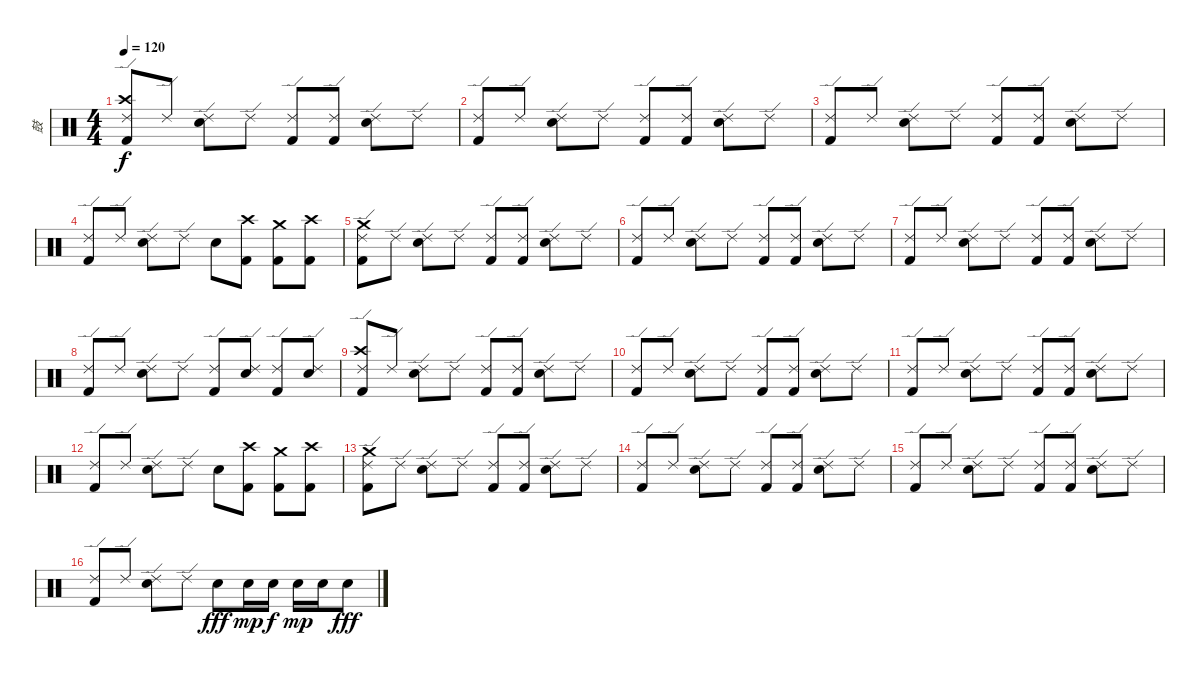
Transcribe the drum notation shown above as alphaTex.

\track ("鼓" "鼓") {instrument percussion}
\staff {score}
\articulation defaults
\ts (4 4)
\tempo 120
\clef neutral
\ks c
("Ride (edge) 2" "Crash high (hit)" "Kick (hit) 2").8{dy f volume 13} "Ride (edge) 2".8 ("Ride (edge) 2" "Electric Snare (hit)").8 "Ride (edge) 2".8 ("Ride (edge) 2" "Kick (hit) 2").8 ("Ride (edge) 2" "Kick (hit) 2").8 ("Ride (edge) 2" "Electric Snare (hit)").8 "Ride (edge) 2".8 |
("Ride (edge) 2" "Kick (hit) 2").8 "Ride (edge) 2".8 ("Ride (edge) 2" "Electric Snare (hit)").8 "Ride (edge) 2".8 ("Ride (edge) 2" "Kick (hit) 2").8 ("Ride (edge) 2" "Kick (hit) 2").8 ("Ride (edge) 2" "Electric Snare (hit)").8 "Ride (edge) 2".8 |
("Ride (edge) 2" "Kick (hit) 2").8 "Ride (edge) 2".8 ("Ride (edge) 2" "Electric Snare (hit)").8 "Ride (edge) 2".8 ("Ride (edge) 2" "Kick (hit) 2").8 ("Ride (edge) 2" "Kick (hit) 2").8 ("Ride (edge) 2" "Electric Snare (hit)").8 "Ride (edge) 2".8 |
("Ride (edge) 2" "Kick (hit) 2").8 "Ride (edge) 2".8 ("Ride (edge) 2" "Electric Snare (hit)").8 "Ride (edge) 2".8 "Electric Snare (hit)".8 ("Crash high (hit)" "Kick (hit) 2").8 ("Crash medium (hit)" "Kick (hit) 2").8 ("Crash high (hit)" "Kick (hit) 2").8 |
("Ride (edge) 2" "Crash medium (hit)" "Kick (hit) 2").8 "Ride (edge) 2".8 ("Ride (edge) 2" "Electric Snare (hit)").8 "Ride (edge) 2".8 ("Ride (edge) 2" "Kick (hit) 2").8 ("Ride (edge) 2" "Kick (hit) 2").8 ("Ride (edge) 2" "Electric Snare (hit)").8 "Ride (edge) 2".8 |
("Ride (edge) 2" "Kick (hit) 2").8 "Ride (edge) 2".8 ("Ride (edge) 2" "Electric Snare (hit)").8 "Ride (edge) 2".8 ("Ride (edge) 2" "Kick (hit) 2").8 ("Ride (edge) 2" "Kick (hit) 2").8 ("Ride (edge) 2" "Electric Snare (hit)").8 "Ride (edge) 2".8 |
("Ride (edge) 2" "Kick (hit) 2").8 "Ride (edge) 2".8 ("Ride (edge) 2" "Electric Snare (hit)").8 "Ride (edge) 2".8 ("Ride (edge) 2" "Kick (hit) 2").8 ("Ride (edge) 2" "Kick (hit) 2").8 ("Ride (edge) 2" "Electric Snare (hit)").8 "Ride (edge) 2".8 |
("Ride (edge) 2" "Kick (hit) 2").8 "Ride (edge) 2".8 ("Ride (edge) 2" "Electric Snare (hit)").8 "Ride (edge) 2".8 ("Ride (edge) 2" "Kick (hit) 2").8 ("Ride (edge) 2" "Electric Snare (hit)").8 ("Ride (edge) 2" "Kick (hit) 2").8 ("Ride (edge) 2" "Electric Snare (hit)").8 |
("Ride (edge) 2" "Crash high (hit)" "Kick (hit) 2").8{volume 13} "Ride (edge) 2".8 ("Ride (edge) 2" "Electric Snare (hit)").8 "Ride (edge) 2".8 ("Ride (edge) 2" "Kick (hit) 2").8 ("Ride (edge) 2" "Kick (hit) 2").8 ("Ride (edge) 2" "Electric Snare (hit)").8 "Ride (edge) 2".8 |
("Ride (edge) 2" "Kick (hit) 2").8 "Ride (edge) 2".8 ("Ride (edge) 2" "Electric Snare (hit)").8 "Ride (edge) 2".8 ("Ride (edge) 2" "Kick (hit) 2").8 ("Ride (edge) 2" "Kick (hit) 2").8 ("Ride (edge) 2" "Electric Snare (hit)").8 "Ride (edge) 2".8 |
("Ride (edge) 2" "Kick (hit) 2").8 "Ride (edge) 2".8 ("Ride (edge) 2" "Electric Snare (hit)").8 "Ride (edge) 2".8 ("Ride (edge) 2" "Kick (hit) 2").8 ("Ride (edge) 2" "Kick (hit) 2").8 ("Ride (edge) 2" "Electric Snare (hit)").8 "Ride (edge) 2".8 |
("Ride (edge) 2" "Kick (hit) 2").8 "Ride (edge) 2".8 ("Ride (edge) 2" "Electric Snare (hit)").8 "Ride (edge) 2".8 "Electric Snare (hit)".8 ("Crash high (hit)" "Kick (hit) 2").8 ("Crash medium (hit)" "Kick (hit) 2").8 ("Crash high (hit)" "Kick (hit) 2").8 |
("Ride (edge) 2" "Crash medium (hit)" "Kick (hit) 2").8 "Ride (edge) 2".8 ("Ride (edge) 2" "Electric Snare (hit)").8 "Ride (edge) 2".8 ("Ride (edge) 2" "Kick (hit) 2").8 ("Ride (edge) 2" "Kick (hit) 2").8 ("Ride (edge) 2" "Electric Snare (hit)").8 "Ride (edge) 2".8 |
("Ride (edge) 2" "Kick (hit) 2").8 "Ride (edge) 2".8 ("Ride (edge) 2" "Electric Snare (hit)").8 "Ride (edge) 2".8 ("Ride (edge) 2" "Kick (hit) 2").8 ("Ride (edge) 2" "Kick (hit) 2").8 ("Ride (edge) 2" "Electric Snare (hit)").8 "Ride (edge) 2".8 |
("Ride (edge) 2" "Kick (hit) 2").8 "Ride (edge) 2".8 ("Ride (edge) 2" "Electric Snare (hit)").8 "Ride (edge) 2".8 ("Ride (edge) 2" "Kick (hit) 2").8 ("Ride (edge) 2" "Kick (hit) 2").8 ("Ride (edge) 2" "Electric Snare (hit)").8 "Ride (edge) 2".8 |
("Ride (edge) 2" "Kick (hit) 2").8 "Ride (edge) 2".8 ("Ride (edge) 2" "Electric Snare (hit)").8 "Ride (edge) 2".8 "Electric Snare (hit)".8{dy fff} "Electric Snare (hit)".16{dy mp} "Electric Snare (hit)".16{dy f} "Electric Snare (hit)".16{dy mp} "Electric Snare (hit)".16 "Electric Snare (hit)".8{dy fff}
